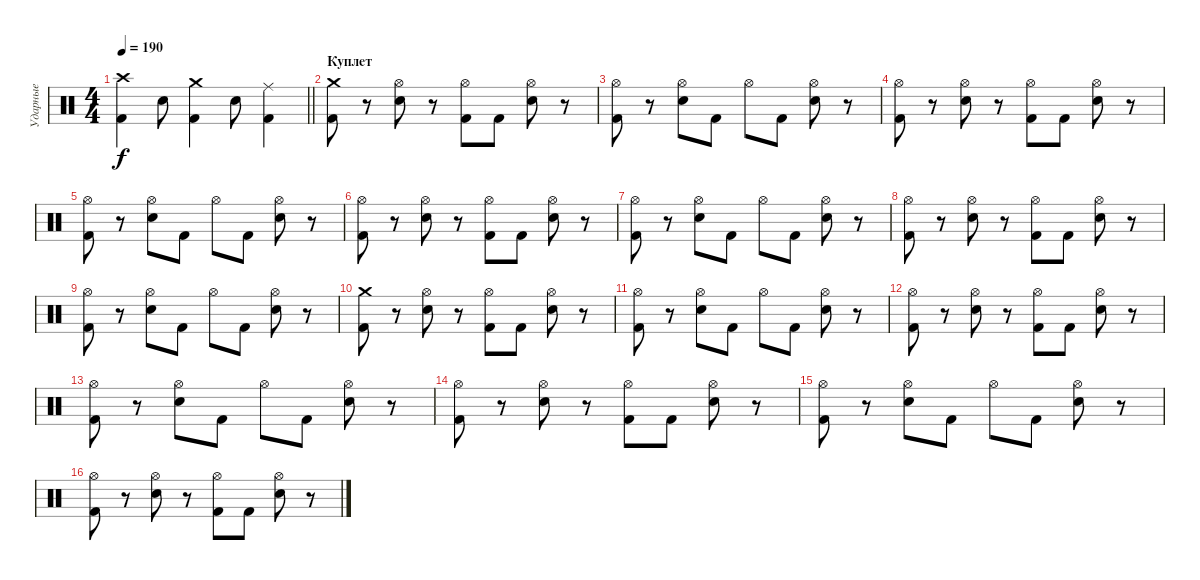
\track ("Ударные" "Ударные") {instrument percussion}
\staff {score}
\articulation defaults
\ts (4 4)
\tempo 190
\clef neutral
\barLineRight lightlight
\ks c
("Crash high (hit)" "Kick (hit) 2").4{dy f} "Electric Snare (hit)".8 ("Crash medium (hit)" "Kick (hit) 2").4 "Electric Snare (hit)".8 ("Ride (middle)" "Kick (hit) 2").4 |
\section ("" "Куплет")
("Crash medium (hit)" "Kick (hit) 2").8 r.8 ("Hi-Hat (open)" "Electric Snare (hit)").8 r.8 ("Hi-Hat (open)" "Kick (hit) 2").8 "Kick (hit) 2".8 ("Hi-Hat (open)" "Electric Snare (hit)").8 r.8 |
("Hi-Hat (open)" "Kick (hit) 2").8 r.8 ("Hi-Hat (open)" "Electric Snare (hit)").8 "Kick (hit) 2".8 "Hi-Hat (open)".8 "Kick (hit) 2".8 ("Hi-Hat (open)" "Electric Snare (hit)").8 r.8 |
("Hi-Hat (open)" "Kick (hit) 2").8 r.8 ("Hi-Hat (open)" "Electric Snare (hit)").8 r.8 ("Hi-Hat (open)" "Kick (hit) 2").8 "Kick (hit) 2".8 ("Hi-Hat (open)" "Electric Snare (hit)").8 r.8 |
("Hi-Hat (open)" "Kick (hit) 2").8 r.8 ("Hi-Hat (open)" "Electric Snare (hit)").8 "Kick (hit) 2".8 "Hi-Hat (open)".8 "Kick (hit) 2".8 ("Hi-Hat (open)" "Electric Snare (hit)").8 r.8 |
("Hi-Hat (open)" "Kick (hit) 2").8 r.8 ("Hi-Hat (open)" "Electric Snare (hit)").8 r.8 ("Hi-Hat (open)" "Kick (hit) 2").8 "Kick (hit) 2".8 ("Hi-Hat (open)" "Electric Snare (hit)").8 r.8 |
("Hi-Hat (open)" "Kick (hit) 2").8 r.8 ("Hi-Hat (open)" "Electric Snare (hit)").8 "Kick (hit) 2".8 "Hi-Hat (open)".8 "Kick (hit) 2".8 ("Hi-Hat (open)" "Electric Snare (hit)").8 r.8 |
("Hi-Hat (open)" "Kick (hit) 2").8 r.8 ("Hi-Hat (open)" "Electric Snare (hit)").8 r.8 ("Hi-Hat (open)" "Kick (hit) 2").8 "Kick (hit) 2".8 ("Hi-Hat (open)" "Electric Snare (hit)").8 r.8 |
("Hi-Hat (open)" "Kick (hit) 2").8 r.8 ("Hi-Hat (open)" "Electric Snare (hit)").8 "Kick (hit) 2".8 "Hi-Hat (open)".8 "Kick (hit) 2".8 ("Hi-Hat (open)" "Electric Snare (hit)").8 r.8 |
("Crash medium (hit)" "Kick (hit) 2").8 r.8 ("Hi-Hat (open)" "Electric Snare (hit)").8 r.8 ("Hi-Hat (open)" "Kick (hit) 2").8 "Kick (hit) 2".8 ("Hi-Hat (open)" "Electric Snare (hit)").8 r.8 |
("Hi-Hat (open)" "Kick (hit) 2").8 r.8 ("Hi-Hat (open)" "Electric Snare (hit)").8 "Kick (hit) 2".8 "Hi-Hat (open)".8 "Kick (hit) 2".8 ("Hi-Hat (open)" "Electric Snare (hit)").8 r.8 |
("Hi-Hat (open)" "Kick (hit) 2").8 r.8 ("Hi-Hat (open)" "Electric Snare (hit)").8 r.8 ("Hi-Hat (open)" "Kick (hit) 2").8 "Kick (hit) 2".8 ("Hi-Hat (open)" "Electric Snare (hit)").8 r.8 |
("Hi-Hat (open)" "Kick (hit) 2").8 r.8 ("Hi-Hat (open)" "Electric Snare (hit)").8 "Kick (hit) 2".8 "Hi-Hat (open)".8 "Kick (hit) 2".8 ("Hi-Hat (open)" "Electric Snare (hit)").8 r.8 |
("Hi-Hat (open)" "Kick (hit) 2").8 r.8 ("Hi-Hat (open)" "Electric Snare (hit)").8 r.8 ("Hi-Hat (open)" "Kick (hit) 2").8 "Kick (hit) 2".8 ("Hi-Hat (open)" "Electric Snare (hit)").8 r.8 |
("Hi-Hat (open)" "Kick (hit) 2").8 r.8 ("Hi-Hat (open)" "Electric Snare (hit)").8 "Kick (hit) 2".8 "Hi-Hat (open)".8 "Kick (hit) 2".8 ("Hi-Hat (open)" "Electric Snare (hit)").8 r.8 |
("Hi-Hat (open)" "Kick (hit) 2").8 r.8 ("Hi-Hat (open)" "Electric Snare (hit)").8 r.8 ("Hi-Hat (open)" "Kick (hit) 2").8 "Kick (hit) 2".8 ("Hi-Hat (open)" "Electric Snare (hit)").8 r.8
